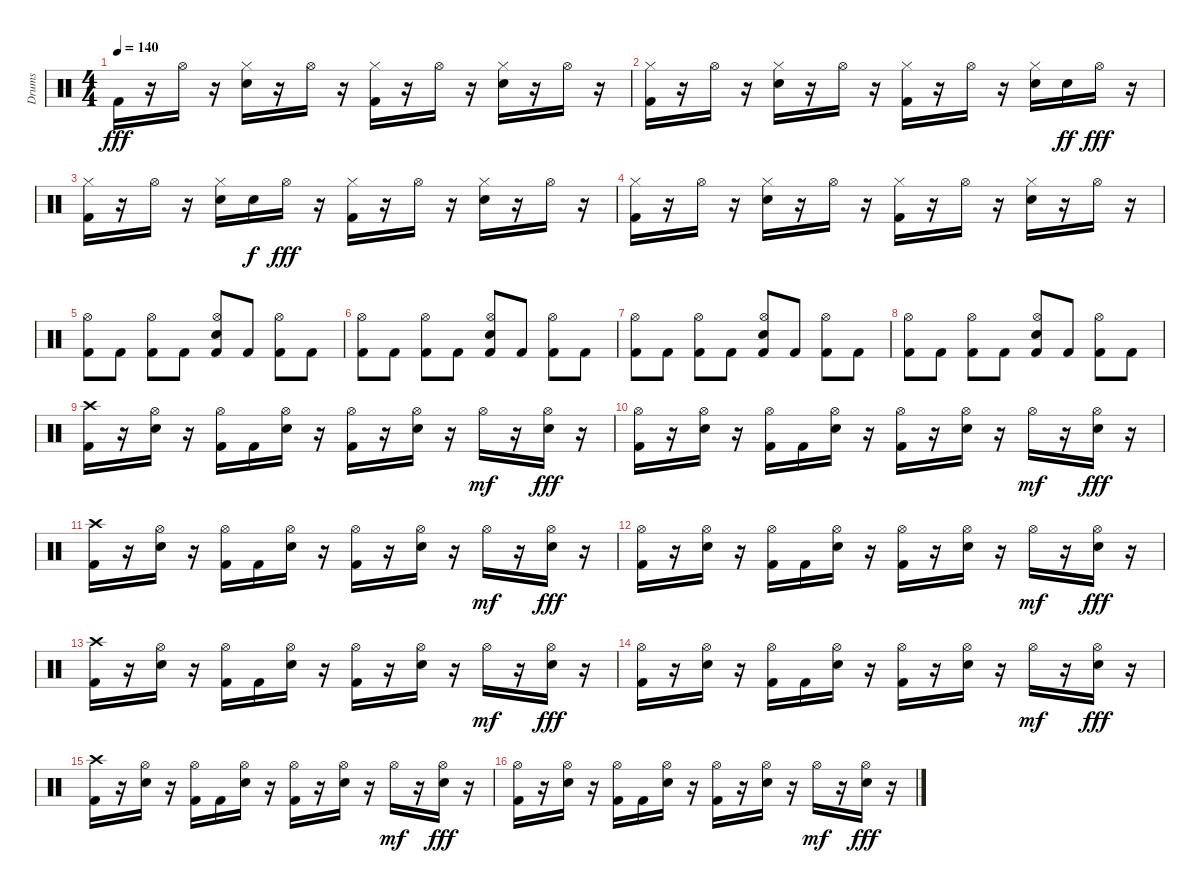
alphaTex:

\track ("Drums" "Drums") {instrument percussion}
\staff {score}
\articulation defaults
\ts (4 4)
\tempo 140
\clef neutral
\ks c "Kick (hit) 2".16{dy fff}
r.16 "Hi-Hat (open)".16 r.16 ("Hi-Hat (closed)" "Electric Snare (hit)").16 r.16 "Hi-Hat (open)".16 r.16 ("Hi-Hat (closed)" "Kick (hit) 2").16 r.16 "Hi-Hat (open)".16 r.16 ("Hi-Hat (closed)" "Electric Snare (hit)").16 r.16 "Hi-Hat (open)".16 r.16 |
("Hi-Hat (closed)" "Kick (hit) 2").16 r.16 "Hi-Hat (open)".16 r.16 ("Hi-Hat (closed)" "Electric Snare (hit)").16 r.16 "Hi-Hat (open)".16 r.16 ("Hi-Hat (closed)" "Kick (hit) 2").16 r.16 "Hi-Hat (open)".16 r.16 ("Hi-Hat (closed)" "Electric Snare (hit)").16 "Electric Snare (hit)".16{dy ff} "Hi-Hat (open)".16{dy fff} r.16 |
("Hi-Hat (closed)" "Kick (hit) 2").16 r.16 "Hi-Hat (open)".16 r.16 ("Hi-Hat (closed)" "Electric Snare (hit)").16 "Electric Snare (hit)".16{dy f} "Hi-Hat (open)".16{dy fff} r.16 ("Hi-Hat (closed)" "Kick (hit) 2").16 r.16 "Hi-Hat (open)".16 r.16 ("Hi-Hat (closed)" "Electric Snare (hit)").16 r.16 "Hi-Hat (open)".16 r.16 |
("Hi-Hat (closed)" "Kick (hit) 2").16 r.16 "Hi-Hat (open)".16 r.16 ("Hi-Hat (closed)" "Electric Snare (hit)").16 r.16 "Hi-Hat (open)".16 r.16 ("Hi-Hat (closed)" "Kick (hit) 2").16 r.16 "Hi-Hat (open)".16 r.16 ("Hi-Hat (closed)" "Electric Snare (hit)").16 r.16 "Hi-Hat (open)".16 r.16 |
("Hi-Hat (open)" "Kick (hit) 2").8 "Kick (hit) 2".8 ("Hi-Hat (open)" "Kick (hit) 2").8 "Kick (hit) 2".8 ("Hi-Hat (open)" "Electric Snare (hit)" "Kick (hit) 2").8 "Kick (hit) 2".8 ("Hi-Hat (open)" "Kick (hit) 2").8 "Kick (hit) 2".8 |
("Hi-Hat (open)" "Kick (hit) 2").8 "Kick (hit) 2".8 ("Hi-Hat (open)" "Kick (hit) 2").8 "Kick (hit) 2".8 ("Hi-Hat (open)" "Electric Snare (hit)" "Kick (hit) 2").8 "Kick (hit) 2".8 ("Hi-Hat (open)" "Kick (hit) 2").8 "Kick (hit) 2".8 |
("Hi-Hat (open)" "Kick (hit) 2").8 "Kick (hit) 2".8 ("Hi-Hat (open)" "Kick (hit) 2").8 "Kick (hit) 2".8 ("Hi-Hat (open)" "Electric Snare (hit)" "Kick (hit) 2").8 "Kick (hit) 2".8 ("Hi-Hat (open)" "Kick (hit) 2").8 "Kick (hit) 2".8 |
("Hi-Hat (open)" "Kick (hit) 2").8 "Kick (hit) 2".8 ("Hi-Hat (open)" "Kick (hit) 2").8 "Kick (hit) 2".8 ("Hi-Hat (open)" "Electric Snare (hit)" "Kick (hit) 2").8 "Kick (hit) 2".8 ("Hi-Hat (open)" "Kick (hit) 2").8 "Kick (hit) 2".8 |
("Crash high (hit)" "Kick (hit) 2").16 r.16 ("Hi-Hat (open)" "Electric Snare (hit)").16 r.16 ("Hi-Hat (open)" "Kick (hit) 2").16 "Kick (hit) 2".16 ("Hi-Hat (open)" "Electric Snare (hit)").16 r.16 ("Hi-Hat (open)" "Kick (hit) 2").16 r.16 ("Hi-Hat (open)" "Electric Snare (hit)").16 r.16 "Hi-Hat (open)".16{dy mf} r.16 ("Hi-Hat (open)" "Electric Snare (hit)").16{dy fff} r.16 |
("Hi-Hat (open)" "Kick (hit) 2").16 r.16 ("Hi-Hat (open)" "Electric Snare (hit)").16 r.16 ("Hi-Hat (open)" "Kick (hit) 2").16 "Kick (hit) 2".16 ("Hi-Hat (open)" "Electric Snare (hit)").16 r.16 ("Hi-Hat (open)" "Kick (hit) 2").16 r.16 ("Hi-Hat (open)" "Electric Snare (hit)").16 r.16 "Hi-Hat (open)".16{dy mf} r.16 ("Hi-Hat (open)" "Electric Snare (hit)").16{dy fff} r.16 |
("Crash high (hit)" "Kick (hit) 2").16 r.16 ("Hi-Hat (open)" "Electric Snare (hit)").16 r.16 ("Hi-Hat (open)" "Kick (hit) 2").16 "Kick (hit) 2".16 ("Hi-Hat (open)" "Electric Snare (hit)").16 r.16 ("Hi-Hat (open)" "Kick (hit) 2").16 r.16 ("Hi-Hat (open)" "Electric Snare (hit)").16 r.16 "Hi-Hat (open)".16{dy mf} r.16 ("Hi-Hat (open)" "Electric Snare (hit)").16{dy fff} r.16 |
("Hi-Hat (open)" "Kick (hit) 2").16 r.16 ("Hi-Hat (open)" "Electric Snare (hit)").16 r.16 ("Hi-Hat (open)" "Kick (hit) 2").16 "Kick (hit) 2".16 ("Hi-Hat (open)" "Electric Snare (hit)").16 r.16 ("Hi-Hat (open)" "Kick (hit) 2").16 r.16 ("Hi-Hat (open)" "Electric Snare (hit)").16 r.16 "Hi-Hat (open)".16{dy mf} r.16 ("Hi-Hat (open)" "Electric Snare (hit)").16{dy fff} r.16 |
("Crash high (hit)" "Kick (hit) 2").16 r.16 ("Hi-Hat (open)" "Electric Snare (hit)").16 r.16 ("Hi-Hat (open)" "Kick (hit) 2").16 "Kick (hit) 2".16 ("Hi-Hat (open)" "Electric Snare (hit)").16 r.16 ("Hi-Hat (open)" "Kick (hit) 2").16 r.16 ("Hi-Hat (open)" "Electric Snare (hit)").16 r.16 "Hi-Hat (open)".16{dy mf} r.16 ("Hi-Hat (open)" "Electric Snare (hit)").16{dy fff} r.16 |
("Hi-Hat (open)" "Kick (hit) 2").16 r.16 ("Hi-Hat (open)" "Electric Snare (hit)").16 r.16 ("Hi-Hat (open)" "Kick (hit) 2").16 "Kick (hit) 2".16 ("Hi-Hat (open)" "Electric Snare (hit)").16 r.16 ("Hi-Hat (open)" "Kick (hit) 2").16 r.16 ("Hi-Hat (open)" "Electric Snare (hit)").16 r.16 "Hi-Hat (open)".16{dy mf} r.16 ("Hi-Hat (open)" "Electric Snare (hit)").16{dy fff} r.16 |
("Crash high (hit)" "Kick (hit) 2").16 r.16 ("Hi-Hat (open)" "Electric Snare (hit)").16 r.16 ("Hi-Hat (open)" "Kick (hit) 2").16 "Kick (hit) 2".16 ("Hi-Hat (open)" "Electric Snare (hit)").16 r.16 ("Hi-Hat (open)" "Kick (hit) 2").16 r.16 ("Hi-Hat (open)" "Electric Snare (hit)").16 r.16 "Hi-Hat (open)".16{dy mf} r.16 ("Hi-Hat (open)" "Electric Snare (hit)").16{dy fff} r.16 |
("Hi-Hat (open)" "Kick (hit) 2").16 r.16 ("Hi-Hat (open)" "Electric Snare (hit)").16 r.16 ("Hi-Hat (open)" "Kick (hit) 2").16 "Kick (hit) 2".16 ("Hi-Hat (open)" "Electric Snare (hit)").16 r.16 ("Hi-Hat (open)" "Kick (hit) 2").16 r.16 ("Hi-Hat (open)" "Electric Snare (hit)").16 r.16 "Hi-Hat (open)".16{dy mf} r.16 ("Hi-Hat (open)" "Electric Snare (hit)").16{dy fff} r.16
